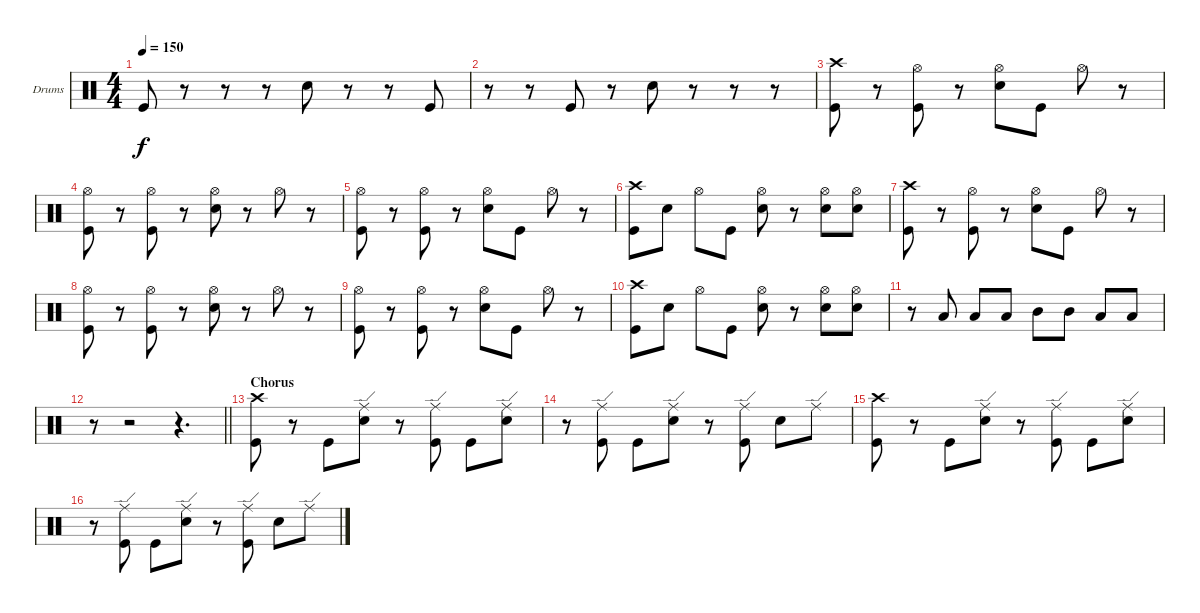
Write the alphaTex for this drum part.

\bracketExtendMode nobrackets
\firstSystemTrackNameOrientation horizontal
\otherSystemsTrackNameOrientation horizontal
\track ("Drumkit" "Drums") {instrument percussion}
\staff {score}
\articulation defaults
\ts (4 4)
\tempo 150
\clef neutral
\ks c "Kick (hit)".8{dy f}
r.8 r.8 r.8 "Snare (hit) 2".8 r.8 r.8 "Kick (hit)".8 |
r.8 r.8 "Kick (hit)".8 r.8 "Snare (hit) 2".8 r.8 r.8 r.8 |
("Crash high (hit)" "Kick (hit)").8 r.8 ("Hi-Hat (open)" "Kick (hit)").8 r.8 ("Hi-Hat (open)" "Snare (hit) 2").8 "Kick (hit)".8 "Hi-Hat (open)".8 r.8 |
("Hi-Hat (open)" "Kick (hit)").8 r.8 ("Hi-Hat (open)" "Kick (hit)").8 r.8 ("Hi-Hat (open)" "Snare (hit) 2").8 r.8 "Hi-Hat (open)".8 r.8 |
("Hi-Hat (open)" "Kick (hit)").8 r.8 ("Hi-Hat (open)" "Kick (hit)").8 r.8 ("Hi-Hat (open)" "Snare (hit) 2").8 "Kick (hit)".8 "Hi-Hat (open)".8 r.8 |
("Crash high (hit)" "Kick (hit)").8 "Snare (hit) 2".8 "Hi-Hat (open)".8 "Kick (hit)".8 ("Hi-Hat (open)" "Snare (hit) 2").8 r.8 ("Hi-Hat (open)" "Snare (hit) 2").8 ("Hi-Hat (open)" "Snare (hit) 2").8 |
("Crash high (hit)" "Kick (hit)").8 r.8 ("Hi-Hat (open)" "Kick (hit)").8 r.8 ("Hi-Hat (open)" "Snare (hit) 2").8 "Kick (hit)".8 "Hi-Hat (open)".8 r.8 |
("Hi-Hat (open)" "Kick (hit)").8 r.8 ("Hi-Hat (open)" "Kick (hit)").8 r.8 ("Hi-Hat (open)" "Snare (hit) 2").8 r.8 "Hi-Hat (open)".8 r.8 |
("Hi-Hat (open)" "Kick (hit)").8 r.8 ("Hi-Hat (open)" "Kick (hit)").8 r.8 ("Hi-Hat (open)" "Snare (hit) 2").8 "Kick (hit)".8 "Hi-Hat (open)".8 r.8 |
("Crash high (hit)" "Kick (hit)").8 "Snare (hit) 2".8 "Hi-Hat (open)".8 "Kick (hit)".8 ("Hi-Hat (open)" "Snare (hit) 2").8 r.8 ("Hi-Hat (open)" "Snare (hit) 2").8 ("Hi-Hat (open)" "Snare (hit) 2").8 |
r.8 "Low Tom (hit)".8 "Low Tom (hit)".8 "Low Tom (hit)".8 "Mid Tom (hit)".8 "Mid Tom (hit)".8 "Low Tom (hit)".8 "Low Tom (hit)".8 |
\barLineRight lightlight
r.8 r.2 r.4{d} |
\section ("" "Chorus")
("Crash high (hit)" "Kick (hit)").8 r.8 "Kick (hit)".8 ("Ride (edge)" "Snare (hit) 2").8 r.8 ("Ride (edge)" "Kick (hit)").8 "Kick (hit)".8 ("Ride (edge)" "Snare (hit) 2").8 |
r.8 ("Ride (edge)" "Kick (hit)").8 "Kick (hit)".8 ("Ride (edge)" "Snare (hit) 2").8 r.8 ("Ride (edge)" "Kick (hit)").8 "Snare (hit) 2".8 "Ride (edge)".8 |
("Crash high (hit)" "Kick (hit)").8 r.8 "Kick (hit)".8 ("Ride (edge)" "Snare (hit) 2").8 r.8 ("Ride (edge)" "Kick (hit)").8 "Kick (hit)".8 ("Ride (edge)" "Snare (hit) 2").8 |
r.8 ("Ride (edge)" "Kick (hit)").8 "Kick (hit)".8 ("Ride (edge)" "Snare (hit) 2").8 r.8 ("Ride (edge)" "Kick (hit)").8 "Snare (hit) 2".8 "Ride (edge)".8
